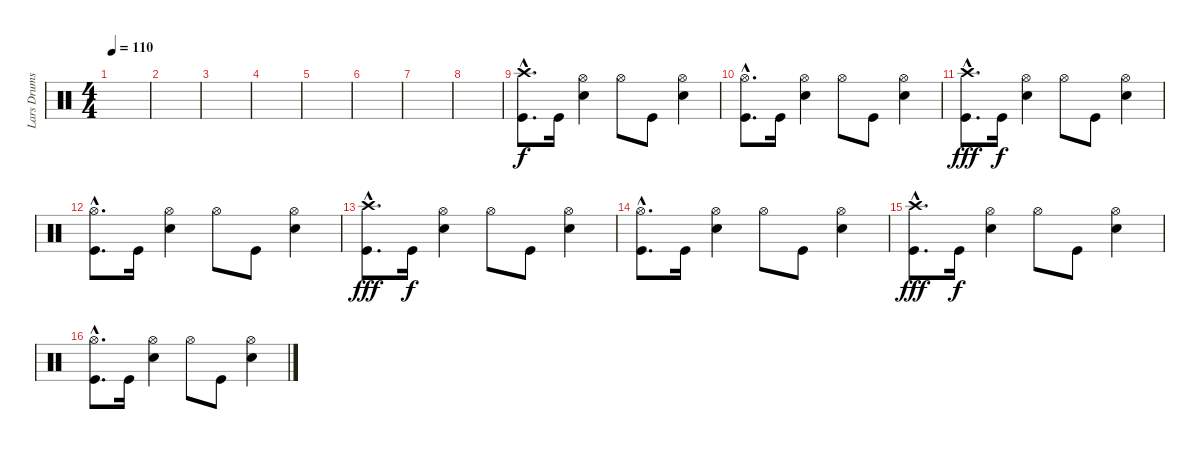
\track ("Lars Drums" "Lars Drums") {instrument percussion}
\staff {score}
\articulation defaults
\ts (4 4)
\tempo 110
\clef neutral
\ks c
|
|
|
|
|
|
|
|
("Crash high (hit)"{hac} "Kick (hit)"{hac}).8{d} "Kick (hit)".16{dy f} ("Hi-Hat (open)" "Electric Snare (hit)").4 "Hi-Hat (open)".8 "Kick (hit)".8 ("Hi-Hat (open)" "Electric Snare (hit)").4 |
("Hi-Hat (open)"{hac} "Kick (hit)"{hac}).8{d} "Kick (hit)".16 ("Hi-Hat (open)" "Electric Snare (hit)").4 "Hi-Hat (open)".8 "Kick (hit)".8 ("Hi-Hat (open)" "Electric Snare (hit)").4 |
("Crash high (hit)"{hac} "Kick (hit)"{hac}).8{d dy fff} "Kick (hit)".16{dy f} ("Hi-Hat (open)" "Electric Snare (hit)").4 "Hi-Hat (open)".8 "Kick (hit)".8 ("Hi-Hat (open)" "Electric Snare (hit)").4 |
("Hi-Hat (open)"{hac} "Kick (hit)"{hac}).8{d} "Kick (hit)".16 ("Hi-Hat (open)" "Electric Snare (hit)").4 "Hi-Hat (open)".8 "Kick (hit)".8 ("Hi-Hat (open)" "Electric Snare (hit)").4 |
("Crash high (hit)"{hac} "Kick (hit)"{hac}).8{d dy fff} "Kick (hit)".16{dy f} ("Hi-Hat (open)" "Electric Snare (hit)").4 "Hi-Hat (open)".8 "Kick (hit)".8 ("Hi-Hat (open)" "Electric Snare (hit)").4 |
("Hi-Hat (open)"{hac} "Kick (hit)"{hac}).8{d} "Kick (hit)".16 ("Hi-Hat (open)" "Electric Snare (hit)").4 "Hi-Hat (open)".8 "Kick (hit)".8 ("Hi-Hat (open)" "Electric Snare (hit)").4 |
("Crash high (hit)"{hac} "Kick (hit)"{hac}).8{d dy fff} "Kick (hit)".16{dy f} ("Hi-Hat (open)" "Electric Snare (hit)").4 "Hi-Hat (open)".8 "Kick (hit)".8 ("Hi-Hat (open)" "Electric Snare (hit)").4 |
("Hi-Hat (open)"{hac} "Kick (hit)"{hac}).8{d} "Kick (hit)".16 ("Hi-Hat (open)" "Electric Snare (hit)").4 "Hi-Hat (open)".8 "Kick (hit)".8 ("Hi-Hat (open)" "Electric Snare (hit)").4
